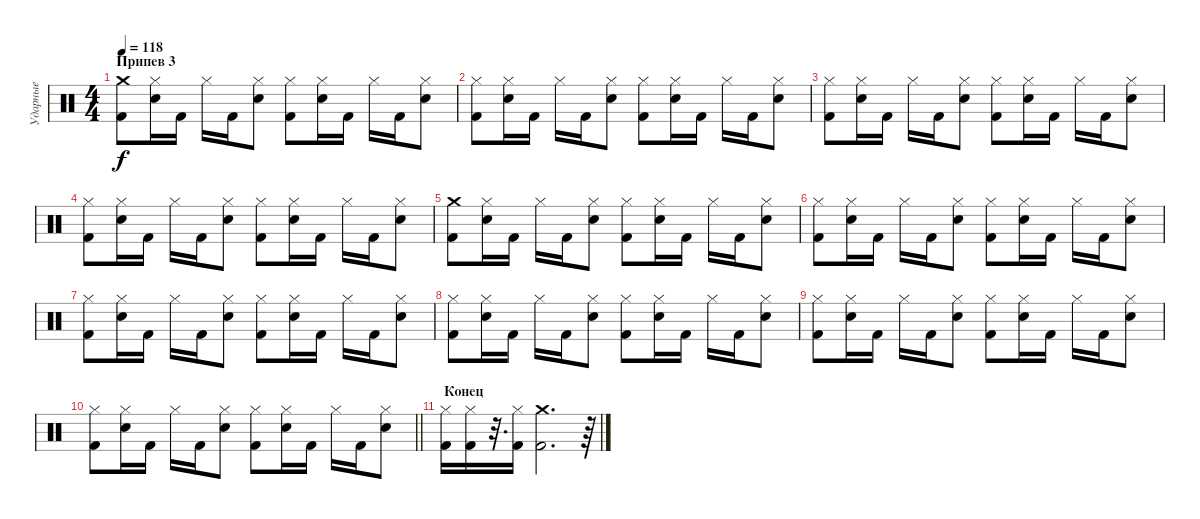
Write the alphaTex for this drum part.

\track ("Ударные" "Ударные") {instrument percussion}
\staff {score}
\articulation defaults
\ts (4 4)
\section ("" "Припев 3")
\tempo 118
\clef neutral
\ks c
("Crash medium (hit)" "Kick (hit) 2").8{dy f} ("Hi-Hat (closed)" "Snare (hit) 2").16 "Kick (hit) 2".16 "Hi-Hat (closed)".16 "Kick (hit) 2".16 ("Hi-Hat (closed)" "Snare (hit) 2").8 ("Hi-Hat (closed)" "Kick (hit) 2").8 ("Hi-Hat (closed)" "Snare (hit) 2").16 "Kick (hit) 2".16 "Hi-Hat (closed)".16 "Kick (hit) 2".16 ("Hi-Hat (closed)" "Snare (hit) 2").8 |
("Hi-Hat (closed)" "Kick (hit) 2").8 ("Hi-Hat (closed)" "Snare (hit) 2").16 "Kick (hit) 2".16 "Hi-Hat (closed)".16 "Kick (hit) 2".16 ("Hi-Hat (closed)" "Snare (hit) 2").8 ("Hi-Hat (closed)" "Kick (hit) 2").8 ("Hi-Hat (closed)" "Snare (hit) 2").16 "Kick (hit) 2".16 "Hi-Hat (closed)".16 "Kick (hit) 2".16 ("Hi-Hat (closed)" "Snare (hit) 2").8 |
("Hi-Hat (closed)" "Kick (hit) 2").8 ("Hi-Hat (closed)" "Snare (hit) 2").16 "Kick (hit) 2".16 "Hi-Hat (closed)".16 "Kick (hit) 2".16 ("Hi-Hat (closed)" "Snare (hit) 2").8 ("Hi-Hat (closed)" "Kick (hit) 2").8 ("Hi-Hat (closed)" "Snare (hit) 2").16 "Kick (hit) 2".16 "Hi-Hat (closed)".16 "Kick (hit) 2".16 ("Hi-Hat (closed)" "Snare (hit) 2").8 |
("Hi-Hat (closed)" "Kick (hit) 2").8 ("Hi-Hat (closed)" "Snare (hit) 2").16 "Kick (hit) 2".16 "Hi-Hat (closed)".16 "Kick (hit) 2".16 ("Hi-Hat (closed)" "Snare (hit) 2").8 ("Hi-Hat (closed)" "Kick (hit) 2").8 ("Hi-Hat (closed)" "Snare (hit) 2").16 "Kick (hit) 2".16 "Hi-Hat (closed)".16 "Kick (hit) 2".16 ("Hi-Hat (closed)" "Snare (hit) 2").8 |
("Crash medium (hit)" "Kick (hit) 2").8 ("Hi-Hat (closed)" "Snare (hit) 2").16 "Kick (hit) 2".16 "Hi-Hat (closed)".16 "Kick (hit) 2".16 ("Hi-Hat (closed)" "Snare (hit) 2").8 ("Hi-Hat (closed)" "Kick (hit) 2").8 ("Hi-Hat (closed)" "Snare (hit) 2").16 "Kick (hit) 2".16 "Hi-Hat (closed)".16 "Kick (hit) 2".16 ("Hi-Hat (closed)" "Snare (hit) 2").8 |
("Hi-Hat (closed)" "Kick (hit) 2").8 ("Hi-Hat (closed)" "Snare (hit) 2").16 "Kick (hit) 2".16 "Hi-Hat (closed)".16 "Kick (hit) 2".16 ("Hi-Hat (closed)" "Snare (hit) 2").8 ("Hi-Hat (closed)" "Kick (hit) 2").8 ("Hi-Hat (closed)" "Snare (hit) 2").16 "Kick (hit) 2".16 "Hi-Hat (closed)".16 "Kick (hit) 2".16 ("Hi-Hat (closed)" "Snare (hit) 2").8 |
("Hi-Hat (closed)" "Kick (hit) 2").8 ("Hi-Hat (closed)" "Snare (hit) 2").16 "Kick (hit) 2".16 "Hi-Hat (closed)".16 "Kick (hit) 2".16 ("Hi-Hat (closed)" "Snare (hit) 2").8 ("Hi-Hat (closed)" "Kick (hit) 2").8 ("Hi-Hat (closed)" "Snare (hit) 2").16 "Kick (hit) 2".16 "Hi-Hat (closed)".16 "Kick (hit) 2".16 ("Hi-Hat (closed)" "Snare (hit) 2").8 |
("Hi-Hat (closed)" "Kick (hit) 2").8 ("Hi-Hat (closed)" "Snare (hit) 2").16 "Kick (hit) 2".16 "Hi-Hat (closed)".16 "Kick (hit) 2".16 ("Hi-Hat (closed)" "Snare (hit) 2").8 ("Hi-Hat (closed)" "Kick (hit) 2").8 ("Hi-Hat (closed)" "Snare (hit) 2").16 "Kick (hit) 2".16 "Hi-Hat (closed)".16 "Kick (hit) 2".16 ("Hi-Hat (closed)" "Snare (hit) 2").8 |
("Hi-Hat (closed)" "Kick (hit) 2").8 ("Hi-Hat (closed)" "Snare (hit) 2").16 "Kick (hit) 2".16 "Hi-Hat (closed)".16 "Kick (hit) 2".16 ("Hi-Hat (closed)" "Snare (hit) 2").8 ("Hi-Hat (closed)" "Kick (hit) 2").8 ("Hi-Hat (closed)" "Snare (hit) 2").16 "Kick (hit) 2".16 "Hi-Hat (closed)".16 "Kick (hit) 2".16 ("Hi-Hat (closed)" "Snare (hit) 2").8 |
\barLineRight lightlight
("Hi-Hat (closed)" "Kick (hit) 2").8 ("Hi-Hat (closed)" "Snare (hit) 2").16 "Kick (hit) 2".16 "Hi-Hat (closed)".16 "Kick (hit) 2".16 ("Hi-Hat (closed)" "Snare (hit) 2").8 ("Hi-Hat (closed)" "Kick (hit) 2").8 ("Hi-Hat (closed)" "Snare (hit) 2").16 "Kick (hit) 2".16 "Hi-Hat (closed)".16 "Kick (hit) 2".16 ("Hi-Hat (closed)" "Snare (hit) 2").8 |
\section ("" " Конец")
("Hi-Hat (closed)" "Kick (hit) 2").16 ("Hi-Hat (closed)" "Kick (hit) 2").16 r.32{d} ("Hi-Hat (closed)" "Kick (hit) 2").16 ("Crash medium (hit)" "Kick (hit) 2").2{d} r.64
